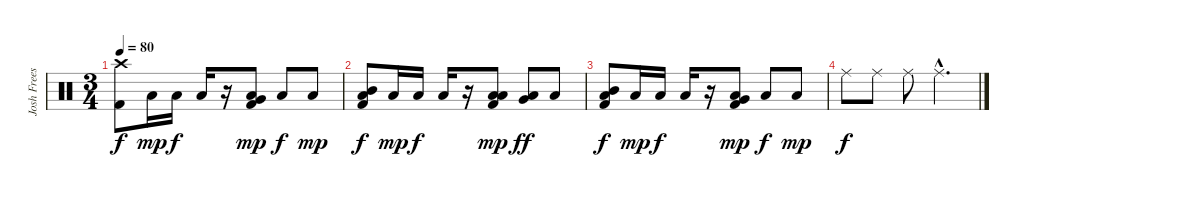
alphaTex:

\track ("Josh Freese" "Josh Frees") {instrument percussion}
\staff {score}
\articulation defaults
\ts (3 4)
\tempo 80
\clef neutral
\ks c
("Crash high (hit)" "Kick (hit) 2").8{dy f} "Low Floor Tom (hit)".16{dy mp} "Low Tom (hit)".16{dy f} "Low Floor Tom (hit)".16 r.16 ("Very Low Tom (hit)" "Low Floor Tom (hit)" "Kick (hit) 2").8{dy mp} "Low Floor Tom (hit)".8{dy f} "Low Floor Tom (hit)".8{dy mp} |
("Mid Tom (hit)" "Low Floor Tom (hit)" "Kick (hit) 2").8{dy f} "Low Floor Tom (hit)".16{dy mp} "Low Tom (hit)".16{dy f} "Low Floor Tom (hit)".16 r.16 ("Low Tom (hit)" "Low Floor Tom (hit)" "Kick (hit) 2").8{dy mp} ("Very Low Tom (hit)" "Low Floor Tom (hit)").8{dy ff} "Low Floor Tom (hit)".8 |
("Mid Tom (hit)" "Low Floor Tom (hit)" "Kick (hit) 2").8{dy f} "Low Floor Tom (hit)".16{dy mp} "Low Tom (hit)".16{dy f} "Low Floor Tom (hit)".16 r.16 ("Very Low Tom (hit)" "Low Floor Tom (hit)" "Kick (hit) 2").8{dy mp} "Low Floor Tom (hit)".8{dy f} "Low Floor Tom (hit)".8{dy mp} |
"Ride (middle)".8{dy f} "Ride (middle)".8 "Ride (middle)".8 "Ride (middle)"{hac}.4{d}
